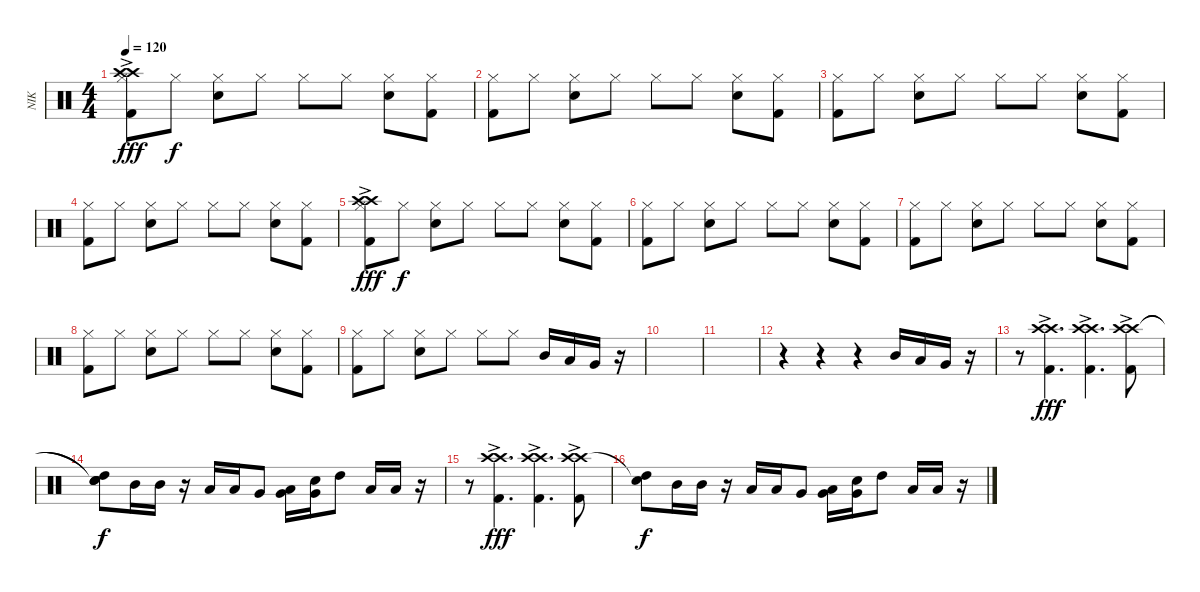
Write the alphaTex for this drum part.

\track ("NIK" "NIK") {instrument percussion}
\staff {score}
\articulation defaults
\ts (4 4)
\tempo 120
\clef neutral
\ks c
("Crash high (hit)"{ac} "Crash high (hit)"{ac} "Hi-Hat (closed)" "Kick (hit) 2").8{dy fff} "Hi-Hat (closed)".8{dy f} ("Snare (hit) 2" "Hi-Hat (closed)").8 "Hi-Hat (closed)".8 "Hi-Hat (closed)".8 "Hi-Hat (closed)".8 ("Snare (hit) 2" "Hi-Hat (closed)").8 ("Hi-Hat (closed)" "Kick (hit) 2").8 |
("Hi-Hat (closed)" "Kick (hit) 2").8 "Hi-Hat (closed)".8 ("Snare (hit) 2" "Hi-Hat (closed)").8 "Hi-Hat (closed)".8 "Hi-Hat (closed)".8 "Hi-Hat (closed)".8 ("Snare (hit) 2" "Hi-Hat (closed)").8 ("Hi-Hat (closed)" "Kick (hit) 2").8 |
("Hi-Hat (closed)" "Kick (hit) 2").8 "Hi-Hat (closed)".8 ("Snare (hit) 2" "Hi-Hat (closed)").8 "Hi-Hat (closed)".8 "Hi-Hat (closed)".8 "Hi-Hat (closed)".8 ("Snare (hit) 2" "Hi-Hat (closed)").8 ("Hi-Hat (closed)" "Kick (hit) 2").8 |
("Hi-Hat (closed)" "Kick (hit) 2").8 "Hi-Hat (closed)".8 ("Snare (hit) 2" "Hi-Hat (closed)").8 "Hi-Hat (closed)".8 "Hi-Hat (closed)".8 "Hi-Hat (closed)".8 ("Snare (hit) 2" "Hi-Hat (closed)").8 ("Hi-Hat (closed)" "Kick (hit) 2").8 |
("Crash high (hit)"{ac} "Crash high (hit)"{ac} "Hi-Hat (closed)" "Kick (hit) 2").8{dy fff} "Hi-Hat (closed)".8{dy f} ("Snare (hit) 2" "Hi-Hat (closed)").8 "Hi-Hat (closed)".8 "Hi-Hat (closed)".8 "Hi-Hat (closed)".8 ("Snare (hit) 2" "Hi-Hat (closed)").8 ("Hi-Hat (closed)" "Kick (hit) 2").8 |
("Hi-Hat (closed)" "Kick (hit) 2").8 "Hi-Hat (closed)".8 ("Snare (hit) 2" "Hi-Hat (closed)").8 "Hi-Hat (closed)".8 "Hi-Hat (closed)".8 "Hi-Hat (closed)".8 ("Snare (hit) 2" "Hi-Hat (closed)").8 ("Hi-Hat (closed)" "Kick (hit) 2").8 |
("Hi-Hat (closed)" "Kick (hit) 2").8 "Hi-Hat (closed)".8 ("Snare (hit) 2" "Hi-Hat (closed)").8 "Hi-Hat (closed)".8 "Hi-Hat (closed)".8 "Hi-Hat (closed)".8 ("Snare (hit) 2" "Hi-Hat (closed)").8 ("Hi-Hat (closed)" "Kick (hit) 2").8 |
("Hi-Hat (closed)" "Kick (hit) 2").8 "Hi-Hat (closed)".8 ("Snare (hit) 2" "Hi-Hat (closed)").8 "Hi-Hat (closed)".8 "Hi-Hat (closed)".8 "Hi-Hat (closed)".8 ("Snare (hit) 2" "Hi-Hat (closed)").8 ("Hi-Hat (closed)" "Kick (hit) 2").8 |
("Hi-Hat (closed)" "Kick (hit) 2").8 "Hi-Hat (closed)".8 ("Snare (hit) 2" "Hi-Hat (closed)").8 "Hi-Hat (closed)".8 "Hi-Hat (closed)".8 "Hi-Hat (closed)".8 "Mid Tom (hit)".16 "Low Tom (hit)".16 "Very Low Tom (hit)".16 r.16 |
|
|
r.4 r.4 r.4 "Mid Tom (hit)".16 "Low Tom (hit)".16 "Very Low Tom (hit)".16 r.16 |
r.8 ("Crash high (hit)"{ac} "Crash high (hit)"{ac} "Kick (hit) 2"{ac}).4{d dy fff} ("Crash high (hit)"{ac} "Crash high (hit)"{ac} "Kick (hit) 2"{ac}).4{d} ("Crash high (hit)"{ac} "Crash high (hit)"{ac} "Kick (hit) 2"{ac}).8 |
("Snare (hit)"{t} "Snare (hit)"{t} "High Tom (hit)" "Snare (hit)").8{dy f} "Mid Tom (hit)".16 "Mid Tom (hit)".16 r.16 "Low Tom (hit)".16 "Low Tom (hit)".16 "Very Low Tom (hit)".8 ("Low Floor Tom (hit)" "Very Low Tom (hit)").16 ("Electric Snare (hit)" "Very Low Tom (hit)").16 "High Tom (hit)".8 "Low Floor Tom (hit)".16 "Low Floor Tom (hit)".16 r.16 |
r.8 ("Crash high (hit)"{ac} "Crash high (hit)"{ac} "Kick (hit) 2"{ac}).4{d dy fff} ("Crash high (hit)"{ac} "Crash high (hit)"{ac} "Kick (hit) 2"{ac}).4{d} ("Crash high (hit)"{ac} "Crash high (hit)"{ac} "Kick (hit) 2"{ac}).8 |
("High Tom (hit)" "Snare (hit)"{t}).8{dy f} "Mid Tom (hit)".16 "Mid Tom (hit)".16 r.16 "Low Tom (hit)".16 "Low Tom (hit)".16 "Very Low Tom (hit)".8 ("Low Floor Tom (hit)" "Very Low Tom (hit)").16 ("Electric Snare (hit)" "Very Low Tom (hit)").16 "High Tom (hit)".8 "Low Floor Tom (hit)".16 "Low Floor Tom (hit)".16 r.16
